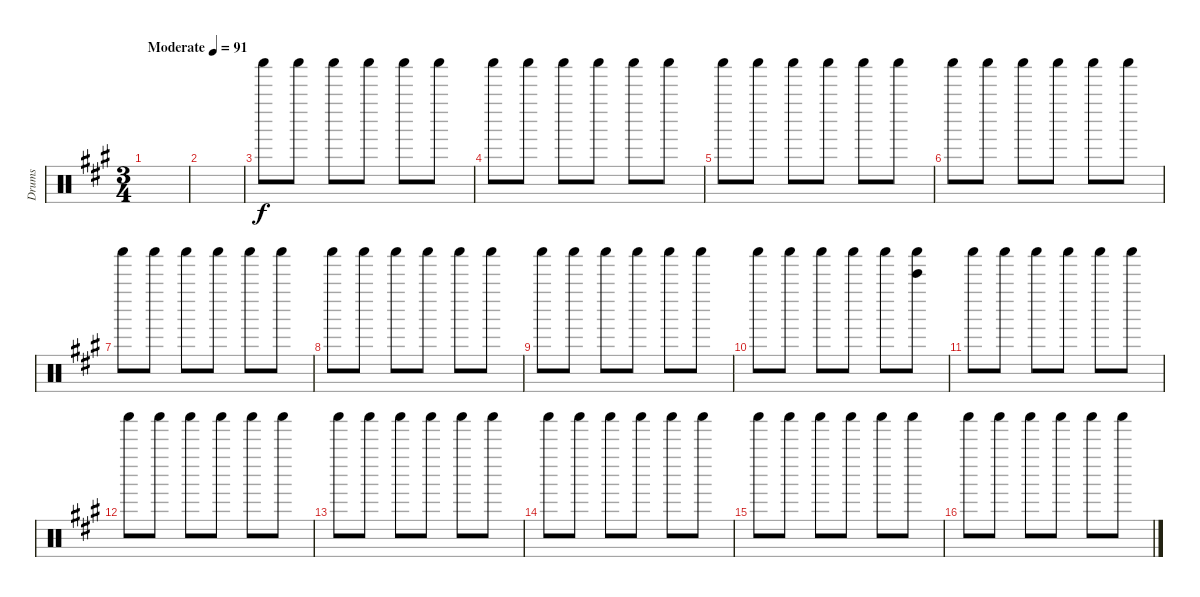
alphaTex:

\track ("Drums" "Drums") {instrument percussion}
\staff {score}
\articulation defaults
\ts (3 4)
\tempo (91 "Moderate")
\clef neutral
\ks a
|
|
"Shaker (hit)".8 "Shaker (hit)".8 "Shaker (hit)".8 "Shaker (hit)".8 "Shaker (hit)".8 "Shaker (hit)".8 |
"Shaker (hit)".8 "Shaker (hit)".8 "Shaker (hit)".8 "Shaker (hit)".8 "Shaker (hit)".8 "Shaker (hit)".8 |
"Shaker (hit)".8 "Shaker (hit)".8 "Shaker (hit)".8 "Shaker (hit)".8 "Shaker (hit)".8 "Shaker (hit)".8 |
"Shaker (hit)".8 "Shaker (hit)".8 "Shaker (hit)".8 "Shaker (hit)".8 "Shaker (hit)".8 "Shaker (hit)".8 |
"Shaker (hit)".8 "Shaker (hit)".8 "Shaker (hit)".8 "Shaker (hit)".8 "Shaker (hit)".8 "Shaker (hit)".8 |
"Shaker (hit)".8 "Shaker (hit)".8 "Shaker (hit)".8 "Shaker (hit)".8 "Shaker (hit)".8 "Shaker (hit)".8 |
"Shaker (hit)".8 "Shaker (hit)".8 "Shaker (hit)".8 "Shaker (hit)".8 "Shaker (hit)".8 "Shaker (hit)".8 |
"Shaker (hit)".8 "Shaker (hit)".8 "Shaker (hit)".8 "Shaker (hit)".8 "Shaker (hit)".8 ("Shaker (hit)" "Bell Tree (hit)").8 |
"Shaker (hit)".8 "Shaker (hit)".8 "Shaker (hit)".8 "Shaker (hit)".8 "Shaker (hit)".8 "Shaker (hit)".8 |
"Shaker (hit)".8 "Shaker (hit)".8 "Shaker (hit)".8 "Shaker (hit)".8 "Shaker (hit)".8 "Shaker (hit)".8 |
"Shaker (hit)".8 "Shaker (hit)".8 "Shaker (hit)".8 "Shaker (hit)".8 "Shaker (hit)".8 "Shaker (hit)".8 |
"Shaker (hit)".8 "Shaker (hit)".8 "Shaker (hit)".8 "Shaker (hit)".8 "Shaker (hit)".8 "Shaker (hit)".8 |
"Shaker (hit)".8 "Shaker (hit)".8 "Shaker (hit)".8 "Shaker (hit)".8 "Shaker (hit)".8 "Shaker (hit)".8 |
"Shaker (hit)".8 "Shaker (hit)".8 "Shaker (hit)".8 "Shaker (hit)".8 "Shaker (hit)".8 "Shaker (hit)".8
